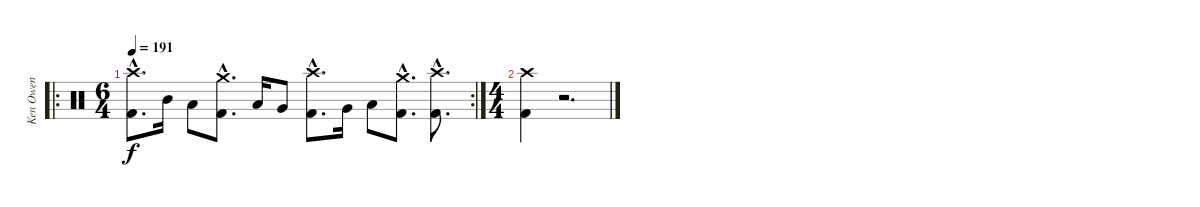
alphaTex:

\track ("Ken Owen" "Ken Owen") {instrument percussion}
\staff {score}
\articulation defaults
\ro
\rc 2
\ts (6 4)
\tempo 191
\clef neutral
\ks c
("Crash high (hit)"{hac} "Kick (hit) 2"{hac}).8{d dy f} "Mid Tom (hit)".16 "Low Tom (hit)".8 ("Crash medium (hit)"{hac} "Kick (hit) 2"{hac}).8{d} "Low Tom (hit)".16 "Very Low Tom (hit)".8 ("Crash high (hit)"{hac} "Kick (hit) 2"{hac}).8{d} "Very Low Tom (hit)".16 "Low Floor Tom (hit)".8 ("Crash medium (hit)"{hac} "Kick (hit) 2"{hac}).8{d} ("Crash high (hit)"{hac} "Kick (hit) 2"{hac}).8{d} |
\ts (4 4)
("Crash high (hit)" "Kick (hit) 2").4 r.2{d}
